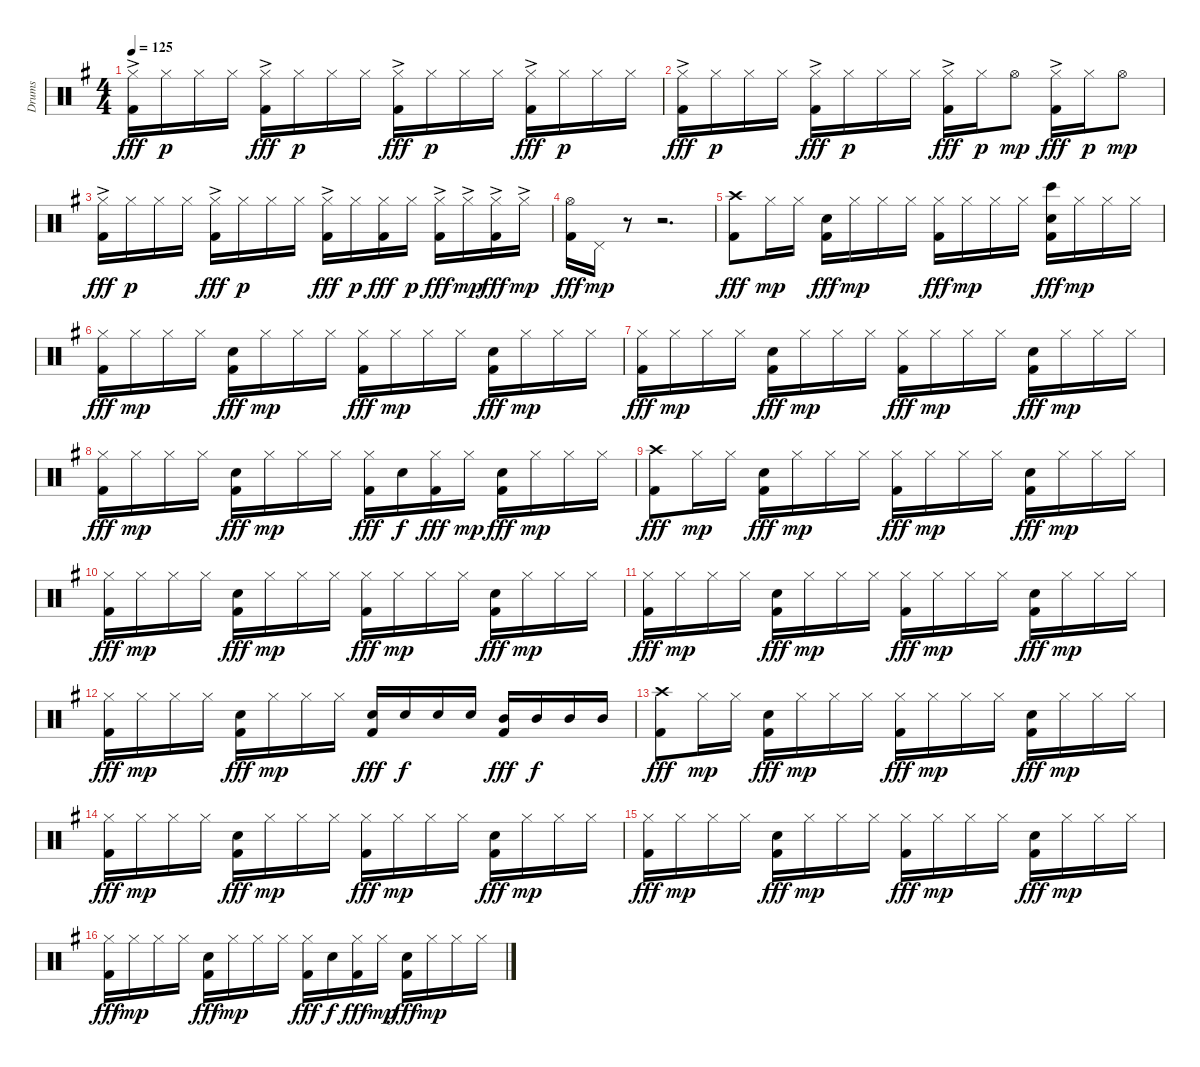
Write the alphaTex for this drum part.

\track ("Drums" "Drums") {instrument percussion}
\staff {score}
\articulation defaults
\ts (4 4)
\tempo 125
\clef neutral
\ks eminor
("Hi-Hat (closed)"{ac} "Kick (hit) 2").16{dy fff} "Hi-Hat (closed)".16{dy p} "Hi-Hat (closed)".16 "Hi-Hat (closed)".16 ("Hi-Hat (closed)"{ac} "Kick (hit) 2").16{dy fff} "Hi-Hat (closed)".16{dy p} "Hi-Hat (closed)".16 "Hi-Hat (closed)".16 ("Hi-Hat (closed)"{ac} "Kick (hit) 2").16{dy fff} "Hi-Hat (closed)".16{dy p} "Hi-Hat (closed)".16 "Hi-Hat (closed)".16 ("Hi-Hat (closed)"{ac} "Kick (hit) 2").16{dy fff} "Hi-Hat (closed)".16{dy p} "Hi-Hat (closed)".16 "Hi-Hat (closed)".16 |
("Hi-Hat (closed)"{ac} "Kick (hit) 2").16{dy fff} "Hi-Hat (closed)".16{dy p} "Hi-Hat (closed)".16 "Hi-Hat (closed)".16 ("Hi-Hat (closed)"{ac} "Kick (hit) 2").16{dy fff} "Hi-Hat (closed)".16{dy p} "Hi-Hat (closed)".16 "Hi-Hat (closed)".16 ("Hi-Hat (closed)"{ac} "Kick (hit) 2").16{dy fff} "Hi-Hat (closed)".16{dy p} "Hi-Hat (open)".8{dy mp} ("Hi-Hat (closed)"{ac} "Kick (hit) 2").16{dy fff} "Hi-Hat (closed)".16{dy p} "Hi-Hat (open)".8{dy mp} |
("Hi-Hat (closed)"{ac} "Kick (hit) 2").16{dy fff} "Hi-Hat (closed)".16{dy p} "Hi-Hat (closed)".16 "Hi-Hat (closed)".16 ("Hi-Hat (closed)"{ac} "Kick (hit) 2").16{dy fff} "Hi-Hat (closed)".16{dy p} "Hi-Hat (closed)".16 "Hi-Hat (closed)".16 ("Hi-Hat (closed)"{ac} "Kick (hit) 2").16{dy fff} "Hi-Hat (closed)".16{dy p} ("Hi-Hat (closed)" "Kick (hit) 2").16{dy fff} "Hi-Hat (closed)".16{dy p} ("Hi-Hat (closed)"{ac} "Kick (hit) 2").16{dy fff} "Hi-Hat (closed)"{ac}.16{dy mp} ("Hi-Hat (closed)"{ac} "Kick (hit) 2").16{dy fff} "Hi-Hat (closed)"{ac}.16{dy mp} |
("Hi-Hat (open)" "Kick (hit) 2").16{dy fff} "Pedal Hi-Hat (hit)".16{dy mp} r.8 r.2{d} |
("Crash high (hit)" "Kick (hit) 2").8{dy fff} "Hi-Hat (closed)".16{dy mp} "Hi-Hat (closed)".16 ("Electric Snare (hit)" "Kick (hit) 2").16{dy fff} "Hi-Hat (closed)".16{dy mp} "Hi-Hat (closed)".16 "Hi-Hat (closed)".16 ("Hi-Hat (closed)" "Kick (hit) 2").16{dy fff} "Hi-Hat (closed)".16{dy mp} "Hi-Hat (closed)".16 "Hi-Hat (closed)".16 ("Bongo High (hit)" "Electric Snare (hit)" "Kick (hit) 2").16{dy fff} "Hi-Hat (closed)".16{dy mp} "Hi-Hat (closed)".16 "Hi-Hat (closed)".16 |
("Hi-Hat (closed)" "Kick (hit) 2").16{dy fff} "Hi-Hat (closed)".16{dy mp} "Hi-Hat (closed)".16 "Hi-Hat (closed)".16 ("Electric Snare (hit)" "Kick (hit) 2").16{dy fff} "Hi-Hat (closed)".16{dy mp} "Hi-Hat (closed)".16 "Hi-Hat (closed)".16 ("Hi-Hat (closed)" "Kick (hit) 2").16{dy fff} "Hi-Hat (closed)".16{dy mp} "Hi-Hat (closed)".16 "Hi-Hat (closed)".16 ("Electric Snare (hit)" "Kick (hit) 2").16{dy fff} "Hi-Hat (closed)".16{dy mp} "Hi-Hat (closed)".16 "Hi-Hat (closed)".16 |
("Hi-Hat (closed)" "Kick (hit) 2").16{dy fff} "Hi-Hat (closed)".16{dy mp} "Hi-Hat (closed)".16 "Hi-Hat (closed)".16 ("Electric Snare (hit)" "Kick (hit) 2").16{dy fff} "Hi-Hat (closed)".16{dy mp} "Hi-Hat (closed)".16 "Hi-Hat (closed)".16 ("Hi-Hat (closed)" "Kick (hit) 2").16{dy fff} "Hi-Hat (closed)".16{dy mp} "Hi-Hat (closed)".16 "Hi-Hat (closed)".16 ("Electric Snare (hit)" "Kick (hit) 2").16{dy fff} "Hi-Hat (closed)".16{dy mp} "Hi-Hat (closed)".16 "Hi-Hat (closed)".16 |
("Hi-Hat (closed)" "Kick (hit) 2").16{dy fff} "Hi-Hat (closed)".16{dy mp} "Hi-Hat (closed)".16 "Hi-Hat (closed)".16 ("Electric Snare (hit)" "Kick (hit) 2").16{dy fff} "Hi-Hat (closed)".16{dy mp} "Hi-Hat (closed)".16 "Hi-Hat (closed)".16 ("Hi-Hat (closed)" "Kick (hit) 2").16{dy fff} "Electric Snare (hit)".16{dy f} ("Hi-Hat (closed)" "Kick (hit) 2").16{dy fff} "Hi-Hat (closed)".16{dy mp} ("Electric Snare (hit)" "Kick (hit) 2").16{dy fff} "Hi-Hat (closed)".16{dy mp} "Hi-Hat (closed)".16 "Hi-Hat (closed)".16 |
("Crash high (hit)" "Kick (hit) 2").8{dy fff} "Hi-Hat (closed)".16{dy mp} "Hi-Hat (closed)".16 ("Electric Snare (hit)" "Kick (hit) 2").16{dy fff} "Hi-Hat (closed)".16{dy mp} "Hi-Hat (closed)".16 "Hi-Hat (closed)".16 ("Hi-Hat (closed)" "Kick (hit) 2").16{dy fff} "Hi-Hat (closed)".16{dy mp} "Hi-Hat (closed)".16 "Hi-Hat (closed)".16 ("Electric Snare (hit)" "Kick (hit) 2").16{dy fff} "Hi-Hat (closed)".16{dy mp} "Hi-Hat (closed)".16 "Hi-Hat (closed)".16 |
("Hi-Hat (closed)" "Kick (hit) 2").16{dy fff} "Hi-Hat (closed)".16{dy mp} "Hi-Hat (closed)".16 "Hi-Hat (closed)".16 ("Electric Snare (hit)" "Kick (hit) 2").16{dy fff} "Hi-Hat (closed)".16{dy mp} "Hi-Hat (closed)".16 "Hi-Hat (closed)".16 ("Hi-Hat (closed)" "Kick (hit) 2").16{dy fff} "Hi-Hat (closed)".16{dy mp} "Hi-Hat (closed)".16 "Hi-Hat (closed)".16 ("Electric Snare (hit)" "Kick (hit) 2").16{dy fff} "Hi-Hat (closed)".16{dy mp} "Hi-Hat (closed)".16 "Hi-Hat (closed)".16 |
("Hi-Hat (closed)" "Kick (hit) 2").16{dy fff} "Hi-Hat (closed)".16{dy mp} "Hi-Hat (closed)".16 "Hi-Hat (closed)".16 ("Electric Snare (hit)" "Kick (hit) 2").16{dy fff} "Hi-Hat (closed)".16{dy mp} "Hi-Hat (closed)".16 "Hi-Hat (closed)".16 ("Hi-Hat (closed)" "Kick (hit) 2").16{dy fff} "Hi-Hat (closed)".16{dy mp} "Hi-Hat (closed)".16 "Hi-Hat (closed)".16 ("Electric Snare (hit)" "Kick (hit) 2").16{dy fff} "Hi-Hat (closed)".16{dy mp} "Hi-Hat (closed)".16 "Hi-Hat (closed)".16 |
("Hi-Hat (closed)" "Kick (hit) 2").16{dy fff} "Hi-Hat (closed)".16{dy mp} "Hi-Hat (closed)".16 "Hi-Hat (closed)".16 ("Electric Snare (hit)" "Kick (hit) 2").16{dy fff} "Hi-Hat (closed)".16{dy mp} "Hi-Hat (closed)".16 "Hi-Hat (closed)".16 ("Electric Snare (hit)" "Kick (hit) 2").16{dy fff} "Electric Snare (hit)".16{dy f} "Electric Snare (hit)".16 "Electric Snare (hit)".16 ("Mid Tom (hit)" "Kick (hit) 2").16{dy fff} "Mid Tom (hit)".16{dy f} "Mid Tom (hit)".16 "Mid Tom (hit)".16 |
("Crash high (hit)" "Kick (hit) 2").8{dy fff} "Hi-Hat (closed)".16{dy mp} "Hi-Hat (closed)".16 ("Electric Snare (hit)" "Kick (hit) 2").16{dy fff} "Hi-Hat (closed)".16{dy mp} "Hi-Hat (closed)".16 "Hi-Hat (closed)".16 ("Hi-Hat (closed)" "Kick (hit) 2").16{dy fff} "Hi-Hat (closed)".16{dy mp} "Hi-Hat (closed)".16 "Hi-Hat (closed)".16 ("Electric Snare (hit)" "Kick (hit) 2").16{dy fff} "Hi-Hat (closed)".16{dy mp} "Hi-Hat (closed)".16 "Hi-Hat (closed)".16 |
("Hi-Hat (closed)" "Kick (hit) 2").16{dy fff} "Hi-Hat (closed)".16{dy mp} "Hi-Hat (closed)".16 "Hi-Hat (closed)".16 ("Electric Snare (hit)" "Kick (hit) 2").16{dy fff} "Hi-Hat (closed)".16{dy mp} "Hi-Hat (closed)".16 "Hi-Hat (closed)".16 ("Hi-Hat (closed)" "Kick (hit) 2").16{dy fff} "Hi-Hat (closed)".16{dy mp} "Hi-Hat (closed)".16 "Hi-Hat (closed)".16 ("Electric Snare (hit)" "Kick (hit) 2").16{dy fff} "Hi-Hat (closed)".16{dy mp} "Hi-Hat (closed)".16 "Hi-Hat (closed)".16 |
("Hi-Hat (closed)" "Kick (hit) 2").16{dy fff} "Hi-Hat (closed)".16{dy mp} "Hi-Hat (closed)".16 "Hi-Hat (closed)".16 ("Electric Snare (hit)" "Kick (hit) 2").16{dy fff} "Hi-Hat (closed)".16{dy mp} "Hi-Hat (closed)".16 "Hi-Hat (closed)".16 ("Hi-Hat (closed)" "Kick (hit) 2").16{dy fff} "Hi-Hat (closed)".16{dy mp} "Hi-Hat (closed)".16 "Hi-Hat (closed)".16 ("Electric Snare (hit)" "Kick (hit) 2").16{dy fff} "Hi-Hat (closed)".16{dy mp} "Hi-Hat (closed)".16 "Hi-Hat (closed)".16 |
("Hi-Hat (closed)" "Kick (hit) 2").16{dy fff} "Hi-Hat (closed)".16{dy mp} "Hi-Hat (closed)".16 "Hi-Hat (closed)".16 ("Electric Snare (hit)" "Kick (hit) 2").16{dy fff} "Hi-Hat (closed)".16{dy mp} "Hi-Hat (closed)".16 "Hi-Hat (closed)".16 ("Hi-Hat (closed)" "Kick (hit) 2").16{dy fff} "Electric Snare (hit)".16{dy f} ("Hi-Hat (closed)" "Kick (hit) 2").16{dy fff} "Hi-Hat (closed)".16{dy mp} ("Electric Snare (hit)" "Kick (hit) 2").16{dy fff} "Hi-Hat (closed)".16{dy mp} "Hi-Hat (closed)".16 "Hi-Hat (closed)".16
